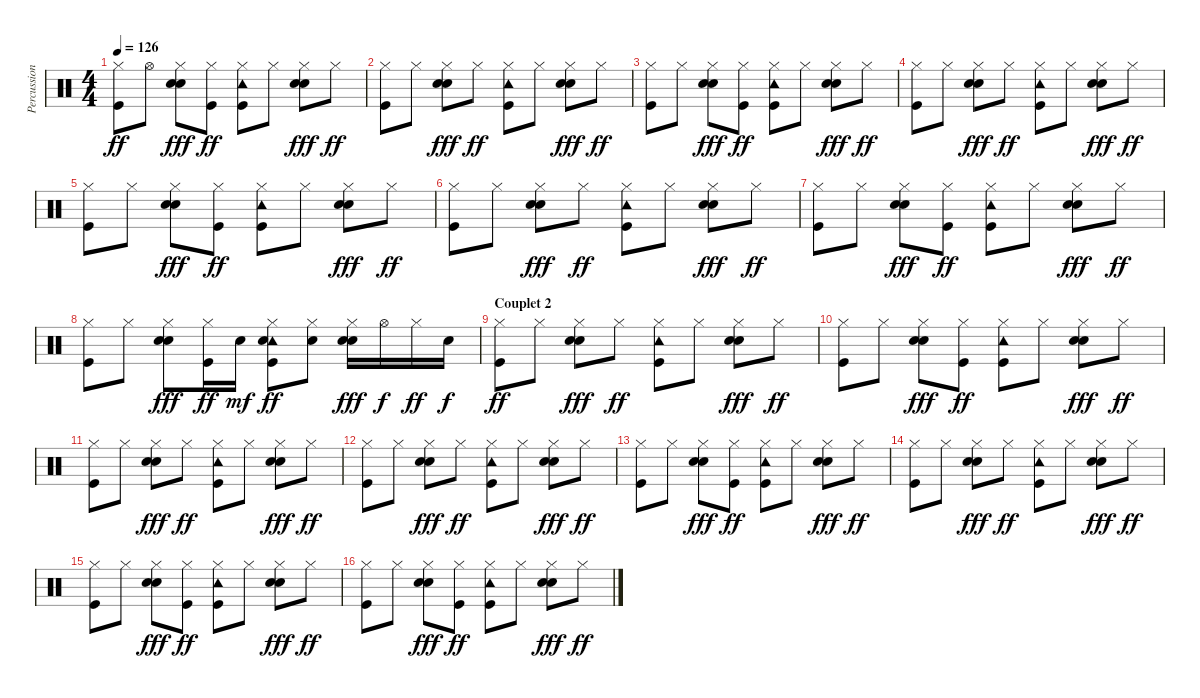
\track ("Percussions" "Percussion") {instrument percussion}
\staff {score}
\articulation defaults
\ts (4 4)
\tempo 126
\clef neutral
\ks c
("Hi-Hat (closed)" "Kick (hit)").8{dy ff} "Hi-Hat (open)".8 ("Hi-Hat (closed)" "Hand Clap (hit)" "Electric Snare (hit)").8{dy fff} ("Hi-Hat (closed)" "Kick (hit)").8{dy ff} ("Hi-Hat (closed)" "Tambourine (hit)" "Kick (hit)").8 "Hi-Hat (closed)".8 ("Hi-Hat (closed)" "Hand Clap (hit)" "Electric Snare (hit)").8{dy fff} "Hi-Hat (closed)".8{dy ff} |
("Hi-Hat (closed)" "Kick (hit)").8 "Hi-Hat (closed)".8 ("Hi-Hat (closed)" "Hand Clap (hit)" "Electric Snare (hit)").8{dy fff} "Hi-Hat (closed)".8{dy ff} ("Hi-Hat (closed)" "Tambourine (hit)" "Kick (hit)").8 "Hi-Hat (closed)".8 ("Hi-Hat (closed)" "Hand Clap (hit)" "Electric Snare (hit)").8{dy fff} "Hi-Hat (closed)".8{dy ff} |
("Hi-Hat (closed)" "Kick (hit)").8 "Hi-Hat (closed)".8 ("Hi-Hat (closed)" "Hand Clap (hit)" "Electric Snare (hit)").8{dy fff} ("Hi-Hat (closed)" "Kick (hit)").8{dy ff} ("Hi-Hat (closed)" "Tambourine (hit)" "Kick (hit)").8 "Hi-Hat (closed)".8 ("Hi-Hat (closed)" "Hand Clap (hit)" "Electric Snare (hit)").8{dy fff} "Hi-Hat (closed)".8{dy ff} |
("Hi-Hat (closed)" "Kick (hit)").8 "Hi-Hat (closed)".8 ("Hi-Hat (closed)" "Hand Clap (hit)" "Electric Snare (hit)").8{dy fff} "Hi-Hat (closed)".8{dy ff} ("Hi-Hat (closed)" "Tambourine (hit)" "Kick (hit)").8 "Hi-Hat (closed)".8 ("Hi-Hat (closed)" "Hand Clap (hit)" "Electric Snare (hit)").8{dy fff} "Hi-Hat (closed)".8{dy ff} |
("Hi-Hat (closed)" "Kick (hit)").8 "Hi-Hat (closed)".8 ("Hi-Hat (closed)" "Hand Clap (hit)" "Electric Snare (hit)").8{dy fff} ("Hi-Hat (closed)" "Kick (hit)").8{dy ff} ("Hi-Hat (closed)" "Tambourine (hit)" "Kick (hit)").8 "Hi-Hat (closed)".8 ("Hi-Hat (closed)" "Hand Clap (hit)" "Electric Snare (hit)").8{dy fff} "Hi-Hat (closed)".8{dy ff} |
("Hi-Hat (closed)" "Kick (hit)").8 "Hi-Hat (closed)".8 ("Hi-Hat (closed)" "Hand Clap (hit)" "Electric Snare (hit)").8{dy fff} "Hi-Hat (closed)".8{dy ff} ("Hi-Hat (closed)" "Tambourine (hit)" "Kick (hit)").8 "Hi-Hat (closed)".8 ("Hi-Hat (closed)" "Hand Clap (hit)" "Electric Snare (hit)").8{dy fff} "Hi-Hat (closed)".8{dy ff} |
("Hi-Hat (closed)" "Kick (hit)").8 "Hi-Hat (closed)".8 ("Hi-Hat (closed)" "Hand Clap (hit)" "Electric Snare (hit)").8{dy fff} ("Hi-Hat (closed)" "Kick (hit)").8{dy ff} ("Hi-Hat (closed)" "Tambourine (hit)" "Kick (hit)").8 "Hi-Hat (closed)".8 ("Hi-Hat (closed)" "Hand Clap (hit)" "Electric Snare (hit)").8{dy fff} "Hi-Hat (closed)".8{dy ff} |
("Hi-Hat (closed)" "Kick (hit)").8 "Hi-Hat (closed)".8 ("Hi-Hat (closed)" "Hand Clap (hit)" "Electric Snare (hit)").8{dy fff} ("Hi-Hat (closed)" "Kick (hit)").16{dy ff} "Electric Snare (hit)".16{dy mf} ("Hi-Hat (closed)" "Tambourine (hit)" "Electric Snare (hit)" "Kick (hit)").8{dy ff} ("Hi-Hat (closed)" "Electric Snare (hit)").8 ("Hi-Hat (closed)" "Hand Clap (hit)" "Electric Snare (hit)").16{dy fff} "Hi-Hat (open)".16{dy f} "Hi-Hat (closed)".16{dy ff} "Electric Snare (hit)".16{dy f} |
\section ("" "Couplet 2")
("Hi-Hat (closed)" "Kick (hit)").8{dy ff} "Hi-Hat (closed)".8 ("Hi-Hat (closed)" "Hand Clap (hit)" "Electric Snare (hit)").8{dy fff} "Hi-Hat (closed)".8{dy ff} ("Hi-Hat (closed)" "Tambourine (hit)" "Kick (hit)").8 "Hi-Hat (closed)".8 ("Hi-Hat (closed)" "Hand Clap (hit)" "Electric Snare (hit)").8{dy fff} "Hi-Hat (closed)".8{dy ff} |
("Hi-Hat (closed)" "Kick (hit)").8 "Hi-Hat (closed)".8 ("Hi-Hat (closed)" "Hand Clap (hit)" "Electric Snare (hit)").8{dy fff} ("Hi-Hat (closed)" "Kick (hit)").8{dy ff} ("Hi-Hat (closed)" "Tambourine (hit)" "Kick (hit)").8 "Hi-Hat (closed)".8 ("Hi-Hat (closed)" "Hand Clap (hit)" "Electric Snare (hit)").8{dy fff} "Hi-Hat (closed)".8{dy ff} |
("Hi-Hat (closed)" "Kick (hit)").8 "Hi-Hat (closed)".8 ("Hi-Hat (closed)" "Hand Clap (hit)" "Electric Snare (hit)").8{dy fff} "Hi-Hat (closed)".8{dy ff} ("Hi-Hat (closed)" "Tambourine (hit)" "Kick (hit)").8 "Hi-Hat (closed)".8 ("Hi-Hat (closed)" "Hand Clap (hit)" "Electric Snare (hit)").8{dy fff} "Hi-Hat (closed)".8{dy ff} |
("Hi-Hat (closed)" "Kick (hit)").8 "Hi-Hat (closed)".8 ("Hi-Hat (closed)" "Hand Clap (hit)" "Electric Snare (hit)").8{dy fff} "Hi-Hat (closed)".8{dy ff} ("Hi-Hat (closed)" "Tambourine (hit)" "Kick (hit)").8 "Hi-Hat (closed)".8 ("Hi-Hat (closed)" "Hand Clap (hit)" "Electric Snare (hit)").8{dy fff} "Hi-Hat (closed)".8{dy ff} |
("Hi-Hat (closed)" "Kick (hit)").8 "Hi-Hat (closed)".8 ("Hi-Hat (closed)" "Hand Clap (hit)" "Electric Snare (hit)").8{dy fff} ("Hi-Hat (closed)" "Kick (hit)").8{dy ff} ("Hi-Hat (closed)" "Tambourine (hit)" "Kick (hit)").8 "Hi-Hat (closed)".8 ("Hi-Hat (closed)" "Hand Clap (hit)" "Electric Snare (hit)").8{dy fff} "Hi-Hat (closed)".8{dy ff} |
("Hi-Hat (closed)" "Kick (hit)").8 "Hi-Hat (closed)".8 ("Hi-Hat (closed)" "Hand Clap (hit)" "Electric Snare (hit)").8{dy fff} "Hi-Hat (closed)".8{dy ff} ("Hi-Hat (closed)" "Tambourine (hit)" "Kick (hit)").8 "Hi-Hat (closed)".8 ("Hi-Hat (closed)" "Hand Clap (hit)" "Electric Snare (hit)").8{dy fff} "Hi-Hat (closed)".8{dy ff} |
("Hi-Hat (closed)" "Kick (hit)").8 "Hi-Hat (closed)".8 ("Hi-Hat (closed)" "Hand Clap (hit)" "Electric Snare (hit)").8{dy fff} ("Hi-Hat (closed)" "Kick (hit)").8{dy ff} ("Hi-Hat (closed)" "Tambourine (hit)" "Kick (hit)").8 "Hi-Hat (closed)".8 ("Hi-Hat (closed)" "Hand Clap (hit)" "Electric Snare (hit)").8{dy fff} "Hi-Hat (closed)".8{dy ff} |
("Hi-Hat (closed)" "Kick (hit)").8 "Hi-Hat (closed)".8 ("Hi-Hat (closed)" "Hand Clap (hit)" "Electric Snare (hit)").8{dy fff} ("Hi-Hat (closed)" "Kick (hit)").8{dy ff} ("Hi-Hat (closed)" "Tambourine (hit)" "Kick (hit)").8 "Hi-Hat (closed)".8 ("Hi-Hat (closed)" "Hand Clap (hit)" "Electric Snare (hit)").8{dy fff} "Hi-Hat (closed)".8{dy ff}
